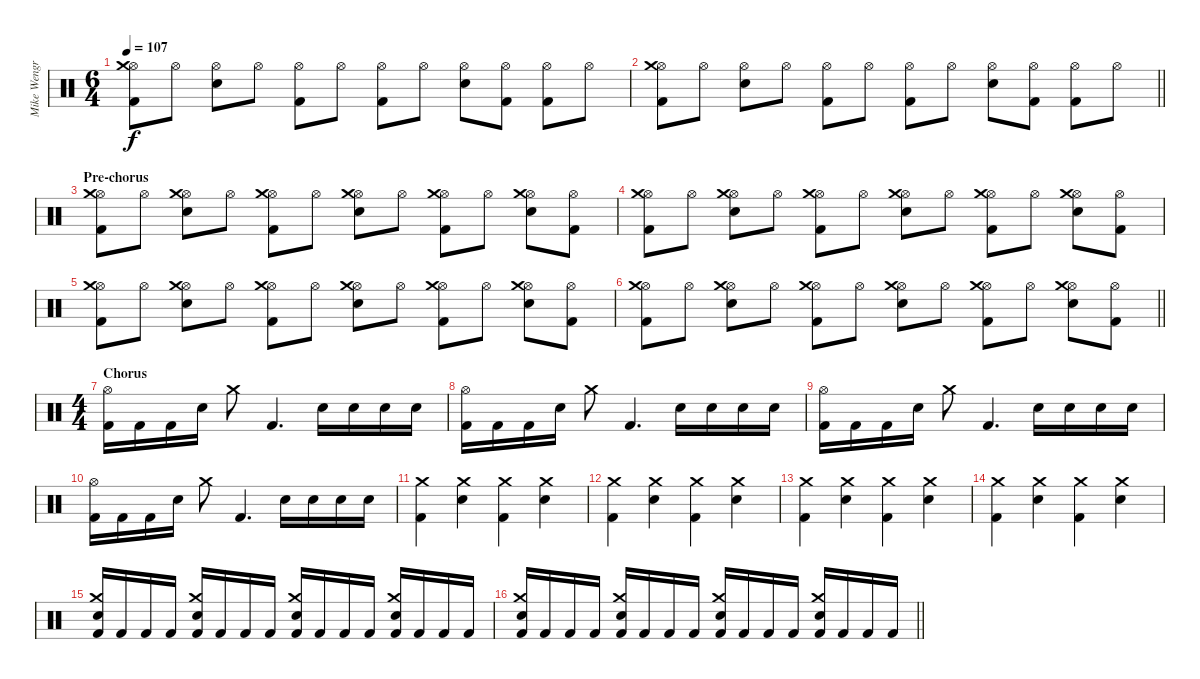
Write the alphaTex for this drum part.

\track ("Mike Wengren" "Mike Wengr") {instrument percussion}
\staff {score}
\articulation defaults
\ts (6 4)
\tempo 107
\clef neutral
\ks c
("Kick (hit) 2" "Hi-Hat (open)" "Crash medium (hit)").8{dy f} "Hi-Hat (open)".8 ("Electric Snare (hit)" "Hi-Hat (open)").8 "Hi-Hat (open)".8 ("Kick (hit) 2" "Hi-Hat (open)").8 "Hi-Hat (open)".8 ("Kick (hit) 2" "Hi-Hat (open)").8 "Hi-Hat (open)".8 ("Electric Snare (hit)" "Hi-Hat (open)").8 ("Kick (hit) 2" "Hi-Hat (open)").8 ("Kick (hit) 2" "Hi-Hat (open)").8 "Hi-Hat (open)".8 |
\barLineRight lightlight
("Kick (hit) 2" "Hi-Hat (open)" "Crash medium (hit)").8 "Hi-Hat (open)".8 ("Electric Snare (hit)" "Hi-Hat (open)").8 "Hi-Hat (open)".8 ("Kick (hit) 2" "Hi-Hat (open)").8 "Hi-Hat (open)".8 ("Kick (hit) 2" "Hi-Hat (open)").8 "Hi-Hat (open)".8 ("Electric Snare (hit)" "Hi-Hat (open)").8 ("Kick (hit) 2" "Hi-Hat (open)").8 ("Kick (hit) 2" "Hi-Hat (open)").8 "Hi-Hat (open)".8 |
\section ("" "Pre-chorus")
("Kick (hit) 2" "Hi-Hat (open)" "Crash medium (hit)").8 "Hi-Hat (open)".8 ("Electric Snare (hit)" "Hi-Hat (open)" "Crash medium (hit)").8 "Hi-Hat (open)".8 ("Kick (hit) 2" "Hi-Hat (open)" "Crash medium (hit)").8 "Hi-Hat (open)".8 ("Electric Snare (hit)" "Hi-Hat (open)" "Crash medium (hit)").8 "Hi-Hat (open)".8 ("Kick (hit) 2" "Hi-Hat (open)" "Crash medium (hit)").8 "Hi-Hat (open)".8 ("Electric Snare (hit)" "Hi-Hat (open)" "Crash medium (hit)").8 ("Kick (hit) 2" "Hi-Hat (open)").8 |
("Kick (hit) 2" "Hi-Hat (open)" "Crash medium (hit)").8 "Hi-Hat (open)".8 ("Electric Snare (hit)" "Hi-Hat (open)" "Crash medium (hit)").8 "Hi-Hat (open)".8 ("Kick (hit) 2" "Hi-Hat (open)" "Crash medium (hit)").8 "Hi-Hat (open)".8 ("Electric Snare (hit)" "Hi-Hat (open)" "Crash medium (hit)").8 "Hi-Hat (open)".8 ("Kick (hit) 2" "Hi-Hat (open)" "Crash medium (hit)").8 "Hi-Hat (open)".8 ("Electric Snare (hit)" "Hi-Hat (open)" "Crash medium (hit)").8 ("Kick (hit) 2" "Hi-Hat (open)").8 |
("Kick (hit) 2" "Hi-Hat (open)" "Crash medium (hit)").8 "Hi-Hat (open)".8 ("Electric Snare (hit)" "Hi-Hat (open)" "Crash medium (hit)").8 "Hi-Hat (open)".8 ("Kick (hit) 2" "Hi-Hat (open)" "Crash medium (hit)").8 "Hi-Hat (open)".8 ("Electric Snare (hit)" "Hi-Hat (open)" "Crash medium (hit)").8 "Hi-Hat (open)".8 ("Kick (hit) 2" "Hi-Hat (open)" "Crash medium (hit)").8 "Hi-Hat (open)".8 ("Electric Snare (hit)" "Hi-Hat (open)" "Crash medium (hit)").8 ("Kick (hit) 2" "Hi-Hat (open)").8 |
\barLineRight lightlight
("Kick (hit) 2" "Hi-Hat (open)" "Crash medium (hit)").8 "Hi-Hat (open)".8 ("Electric Snare (hit)" "Hi-Hat (open)" "Crash medium (hit)").8 "Hi-Hat (open)".8 ("Kick (hit) 2" "Hi-Hat (open)" "Crash medium (hit)").8 "Hi-Hat (open)".8 ("Electric Snare (hit)" "Hi-Hat (open)" "Crash medium (hit)").8 "Hi-Hat (open)".8 ("Kick (hit) 2" "Hi-Hat (open)" "Crash medium (hit)").8 "Hi-Hat (open)".8 ("Electric Snare (hit)" "Hi-Hat (open)" "Crash medium (hit)").8 ("Kick (hit) 2" "Hi-Hat (open)").8 |
\ts (4 4)
\section ("" "Chorus")
("Kick (hit) 2" "Hi-Hat (open)").16 "Kick (hit) 2".16 "Kick (hit) 2".16 "Electric Snare (hit)".16 "Crash medium (hit)".8 "Kick (hit) 2".4{d} "Electric Snare (hit)".16 "Electric Snare (hit)".16 "Electric Snare (hit)".16 "Electric Snare (hit)".16 |
("Kick (hit) 2" "Hi-Hat (open)").16 "Kick (hit) 2".16 "Kick (hit) 2".16 "Electric Snare (hit)".16 "Crash medium (hit)".8 "Kick (hit) 2".4{d} "Electric Snare (hit)".16 "Electric Snare (hit)".16 "Electric Snare (hit)".16 "Electric Snare (hit)".16 |
("Kick (hit) 2" "Hi-Hat (open)").16 "Kick (hit) 2".16 "Kick (hit) 2".16 "Electric Snare (hit)".16 "Crash medium (hit)".8 "Kick (hit) 2".4{d} "Electric Snare (hit)".16 "Electric Snare (hit)".16 "Electric Snare (hit)".16 "Electric Snare (hit)".16 |
("Kick (hit) 2" "Hi-Hat (open)").16 "Kick (hit) 2".16 "Kick (hit) 2".16 "Electric Snare (hit)".16 "Crash medium (hit)".8 "Kick (hit) 2".4{d} "Electric Snare (hit)".16 "Electric Snare (hit)".16 "Electric Snare (hit)".16 "Electric Snare (hit)".16 |
("Kick (hit) 2" "Crash medium (hit)").4 ("Electric Snare (hit)" "Crash medium (hit)").4 ("Kick (hit) 2" "Crash medium (hit)").4 ("Electric Snare (hit)" "Crash medium (hit)").4 |
("Kick (hit) 2" "Crash medium (hit)").4 ("Electric Snare (hit)" "Crash medium (hit)").4 ("Kick (hit) 2" "Crash medium (hit)").4 ("Electric Snare (hit)" "Crash medium (hit)").4 |
("Kick (hit) 2" "Crash medium (hit)").4 ("Electric Snare (hit)" "Crash medium (hit)").4 ("Kick (hit) 2" "Crash medium (hit)").4 ("Electric Snare (hit)" "Crash medium (hit)").4 |
("Kick (hit) 2" "Crash medium (hit)").4 ("Electric Snare (hit)" "Crash medium (hit)").4 ("Kick (hit) 2" "Crash medium (hit)").4 ("Electric Snare (hit)" "Crash medium (hit)").4 |
("Kick (hit) 2" "Electric Snare (hit)" "Crash medium (hit)").16 "Kick (hit) 2".16 "Kick (hit) 2".16 "Kick (hit) 2".16 ("Kick (hit) 2" "Electric Snare (hit)" "Crash medium (hit)").16 "Kick (hit) 2".16 "Kick (hit) 2".16 "Kick (hit) 2".16 ("Kick (hit) 2" "Electric Snare (hit)" "Crash medium (hit)").16 "Kick (hit) 2".16 "Kick (hit) 2".16 "Kick (hit) 2".16 ("Kick (hit) 2" "Electric Snare (hit)" "Crash medium (hit)").16 "Kick (hit) 2".16 "Kick (hit) 2".16 "Kick (hit) 2".16 |
\barLineRight lightlight
("Kick (hit) 2" "Electric Snare (hit)" "Crash medium (hit)").16 "Kick (hit) 2".16 "Kick (hit) 2".16 "Kick (hit) 2".16 ("Kick (hit) 2" "Electric Snare (hit)" "Crash medium (hit)").16 "Kick (hit) 2".16 "Kick (hit) 2".16 "Kick (hit) 2".16 ("Kick (hit) 2" "Electric Snare (hit)" "Crash medium (hit)").16 "Kick (hit) 2".16 "Kick (hit) 2".16 "Kick (hit) 2".16 ("Kick (hit) 2" "Electric Snare (hit)" "Crash medium (hit)").16 "Kick (hit) 2".16 "Kick (hit) 2".16 "Kick (hit) 2".16
